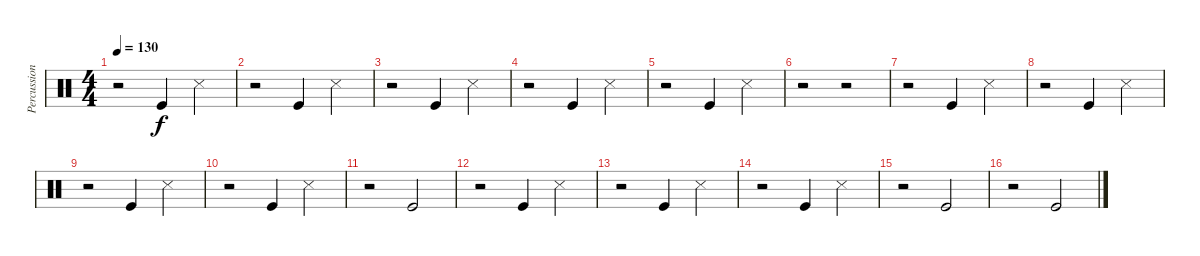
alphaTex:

\track ("Percussion" "Percussion") {instrument percussion}
\staff {score}
\articulation defaults
\ts (4 4)
\tempo 130
\clef neutral
\ks c
r.2{dy f} "Kick (hit)".4 "Snare (side stick) 3".4 |
r.2 "Kick (hit)".4 "Snare (side stick) 3".4 |
r.2 "Kick (hit)".4 "Snare (side stick) 3".4 |
r.2 "Kick (hit)".4 "Snare (side stick) 3".4 |
r.2 "Kick (hit)".4 "Snare (side stick) 3".4 |
r.2 r.2 |
r.2 "Kick (hit)".4 "Snare (side stick) 3".4 |
r.2 "Kick (hit)".4 "Snare (side stick) 3".4 |
r.2 "Kick (hit)".4 "Snare (side stick) 3".4 |
r.2 "Kick (hit)".4 "Snare (side stick) 3".4 |
r.2 "Kick (hit)".2 |
r.2 "Kick (hit)".4 "Snare (side stick) 3".4 |
r.2 "Kick (hit)".4 "Snare (side stick) 3".4 |
r.2 "Kick (hit)".4 "Snare (side stick) 3".4 |
r.2 "Kick (hit)".2 |
r.2 "Kick (hit)".2
